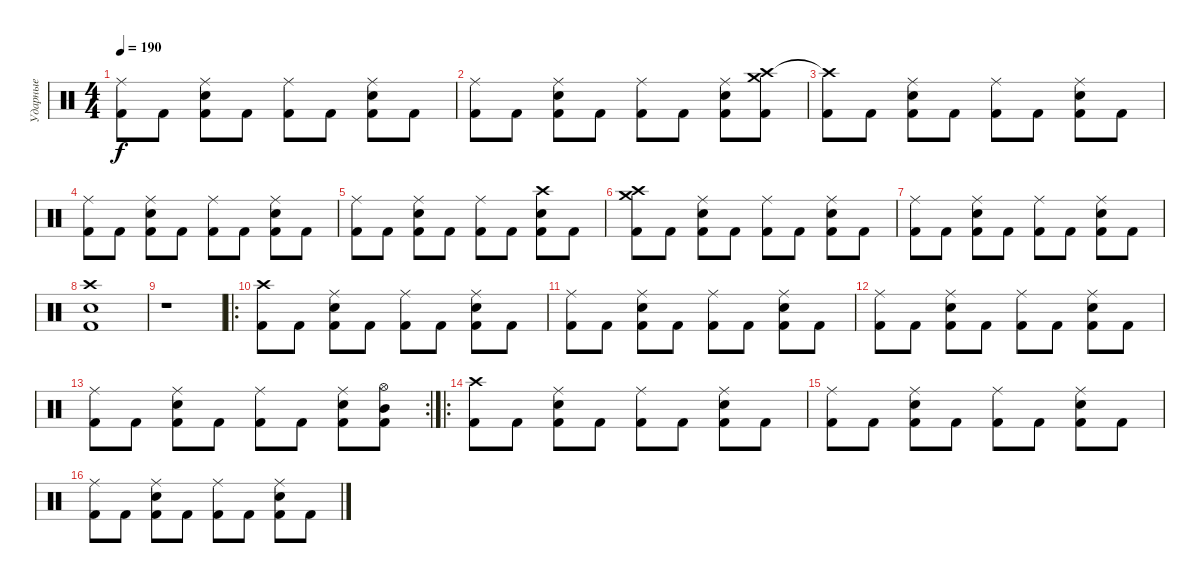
\track ("Ударные" "Ударные") {instrument percussion}
\staff
\articulation defaults
\ts (4 4)
\tempo 190
\clef neutral
\ks c
("Ride (middle)" "Kick (hit) 2").8{dy f} "Kick (hit) 2".8 ("Ride (middle)" "Snare (hit) 2" "Kick (hit) 2").8 "Kick (hit) 2".8 ("Ride (middle)" "Kick (hit) 2").8 "Kick (hit) 2".8 ("Ride (middle)" "Snare (hit) 2" "Kick (hit) 2").8 "Kick (hit) 2".8 |
("Ride (middle)" "Kick (hit) 2").8 "Kick (hit) 2".8 ("Ride (middle)" "Snare (hit) 2" "Kick (hit) 2").8 "Kick (hit) 2".8 ("Ride (middle)" "Kick (hit) 2").8 "Kick (hit) 2".8 ("Ride (middle)" "Snare (hit) 2" "Kick (hit) 2").8 ("Crash high (hit)" "Crash medium (hit)" "Kick (hit) 2").8 |
("Crash high (hit)"{t} "Kick (hit) 2").8 "Kick (hit) 2".8 ("Ride (middle)" "Snare (hit) 2" "Kick (hit) 2").8 "Kick (hit) 2".8 ("Ride (middle)" "Kick (hit) 2").8 "Kick (hit) 2".8 ("Ride (middle)" "Snare (hit) 2" "Kick (hit) 2").8 "Kick (hit) 2".8 |
("Ride (middle)" "Kick (hit) 2").8 "Kick (hit) 2".8 ("Ride (middle)" "Snare (hit) 2" "Kick (hit) 2").8 "Kick (hit) 2".8 ("Ride (middle)" "Kick (hit) 2").8 "Kick (hit) 2".8 ("Ride (middle)" "Snare (hit) 2" "Kick (hit) 2").8 "Kick (hit) 2".8 |
("Ride (middle)" "Kick (hit) 2").8 "Kick (hit) 2".8 ("Ride (middle)" "Snare (hit) 2" "Kick (hit) 2").8 "Kick (hit) 2".8 ("Ride (middle)" "Kick (hit) 2").8 "Kick (hit) 2".8 ("Crash high (hit)" "Snare (hit) 2" "Kick (hit) 2").8 "Kick (hit) 2".8 |
("Crash high (hit)" "Crash medium (hit)" "Kick (hit) 2").8 "Kick (hit) 2".8 ("Ride (middle)" "Snare (hit) 2" "Kick (hit) 2").8 "Kick (hit) 2".8 ("Ride (middle)" "Kick (hit) 2").8 "Kick (hit) 2".8 ("Ride (middle)" "Snare (hit) 2" "Kick (hit) 2").8 "Kick (hit) 2".8 |
("Ride (middle)" "Kick (hit) 2").8 "Kick (hit) 2".8 ("Ride (middle)" "Snare (hit) 2" "Kick (hit) 2").8 "Kick (hit) 2".8 ("Ride (middle)" "Kick (hit) 2").8 "Kick (hit) 2".8 ("Ride (middle)" "Snare (hit) 2" "Kick (hit) 2").8 "Kick (hit) 2".8 |
("Kick (hit) 2" "Snare (hit) 2" "Crash high (hit)").1 |
r.1 |
\ro
("Crash high (hit)" "Kick (hit) 2").8 "Kick (hit) 2".8 ("Ride (middle)" "Snare (hit) 2" "Kick (hit) 2").8 "Kick (hit) 2".8 ("Ride (middle)" "Kick (hit) 2").8 "Kick (hit) 2".8 ("Ride (middle)" "Snare (hit) 2" "Kick (hit) 2").8 "Kick (hit) 2".8 |
("Ride (middle)" "Kick (hit) 2").8 "Kick (hit) 2".8 ("Ride (middle)" "Snare (hit) 2" "Kick (hit) 2").8 "Kick (hit) 2".8 ("Ride (middle)" "Kick (hit) 2").8 "Kick (hit) 2".8 ("Ride (middle)" "Snare (hit) 2" "Kick (hit) 2").8 "Kick (hit) 2".8 |
("Ride (middle)" "Kick (hit) 2").8 "Kick (hit) 2".8 ("Ride (middle)" "Snare (hit) 2" "Kick (hit) 2").8 "Kick (hit) 2".8 ("Ride (middle)" "Kick (hit) 2").8 "Kick (hit) 2".8 ("Ride (middle)" "Snare (hit) 2" "Kick (hit) 2").8 "Kick (hit) 2".8 |
\rc 2
("Ride (middle)" "Kick (hit) 2").8 "Kick (hit) 2".8 ("Ride (middle)" "Snare (hit) 2" "Kick (hit) 2").8 "Kick (hit) 2".8 ("Ride (middle)" "Kick (hit) 2").8 "Kick (hit) 2".8 ("Ride (middle)" "Snare (hit) 2" "Kick (hit) 2").8 ("Hi-Hat (open)" "Mid Tom (hit)" "Kick (hit) 2").8 |
\ro
("Crash high (hit)" "Kick (hit) 2").8 "Kick (hit) 2".8 ("Ride (middle)" "Snare (hit) 2" "Kick (hit) 2").8 "Kick (hit) 2".8 ("Ride (middle)" "Kick (hit) 2").8 "Kick (hit) 2".8 ("Ride (middle)" "Snare (hit) 2" "Kick (hit) 2").8 "Kick (hit) 2".8 |
("Ride (middle)" "Kick (hit) 2").8 "Kick (hit) 2".8 ("Ride (middle)" "Snare (hit) 2" "Kick (hit) 2").8 "Kick (hit) 2".8 ("Ride (middle)" "Kick (hit) 2").8 "Kick (hit) 2".8 ("Ride (middle)" "Snare (hit) 2" "Kick (hit) 2").8 "Kick (hit) 2".8 |
("Ride (middle)" "Kick (hit) 2").8 "Kick (hit) 2".8 ("Ride (middle)" "Snare (hit) 2" "Kick (hit) 2").8 "Kick (hit) 2".8 ("Ride (middle)" "Kick (hit) 2").8 "Kick (hit) 2".8 ("Ride (middle)" "Snare (hit) 2" "Kick (hit) 2").8 "Kick (hit) 2".8
